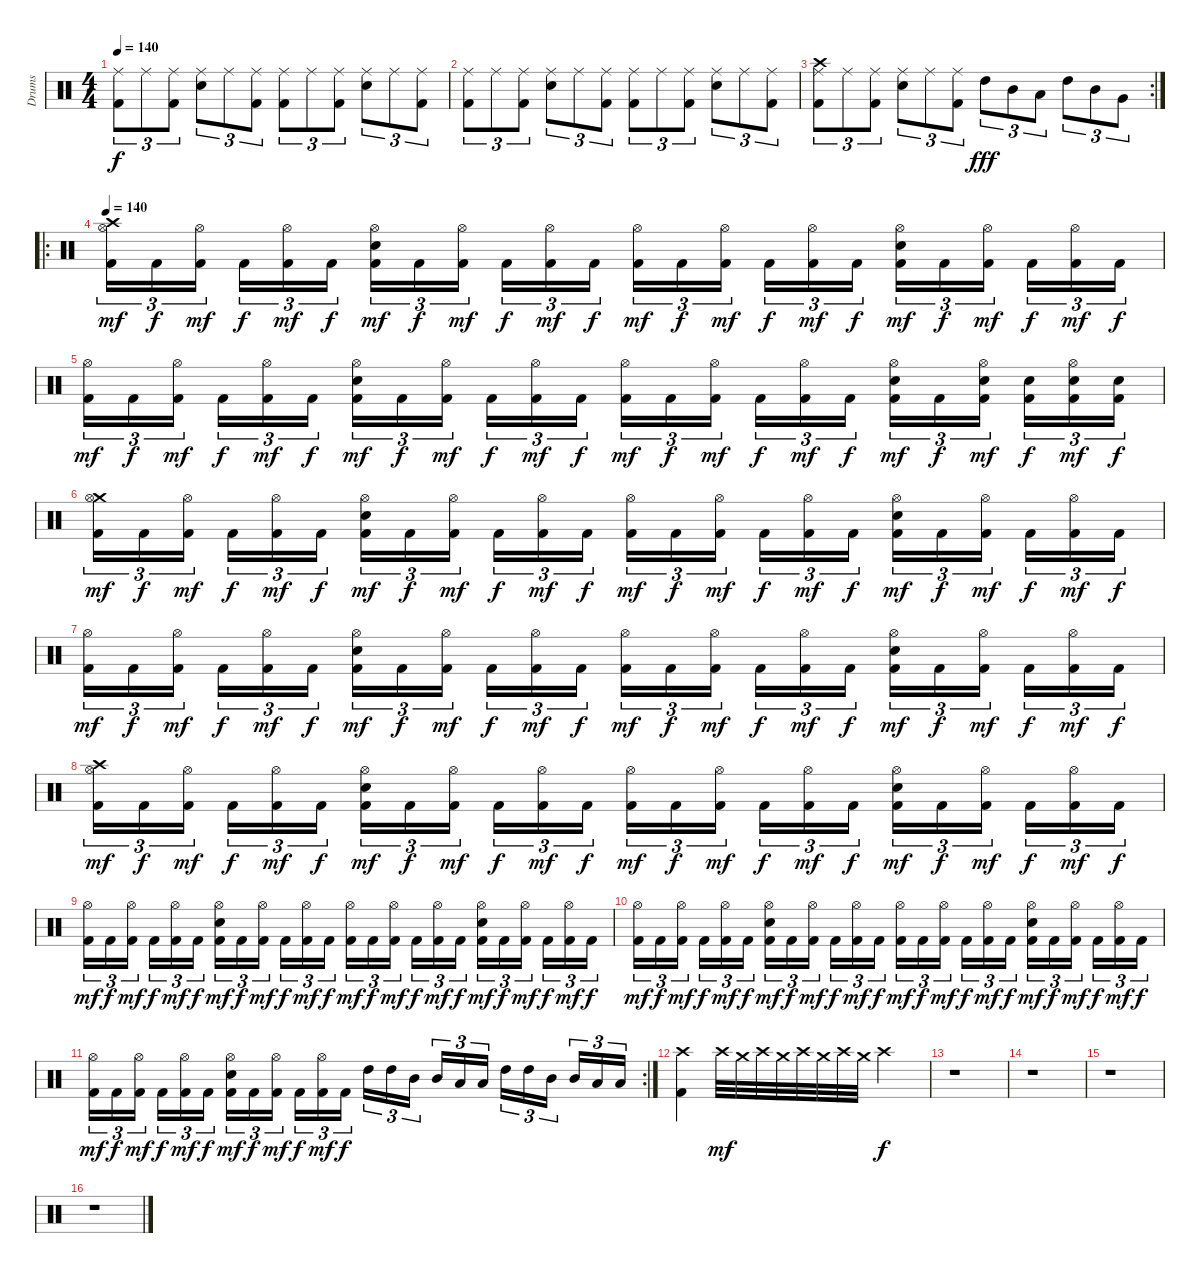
\track ("Drums" "Drums") {instrument percussion}
\staff {score}
\articulation defaults
\ts (4 4)
\tempo 140
\clef neutral
\ks c
("Ride (middle)" "Kick (hit) 2").8{tu (3 2) dy f} "Ride (middle)".8{tu (3 2)} ("Ride (middle)" "Kick (hit) 2").8{tu (3 2)} ("Ride (middle)" "Electric Snare (hit)").8{tu (3 2)} "Ride (middle)".8{tu (3 2)} ("Ride (middle)" "Kick (hit) 2").8{tu (3 2)} ("Ride (middle)" "Kick (hit) 2").8{tu (3 2)} "Ride (middle)".8{tu (3 2)} ("Ride (middle)" "Kick (hit) 2").8{tu (3 2)} ("Ride (middle)" "Electric Snare (hit)").8{tu (3 2)} "Ride (middle)".8{tu (3 2)} ("Ride (middle)" "Kick (hit) 2").8{tu (3 2)} |
("Ride (middle)" "Kick (hit) 2").8{tu (3 2)} "Ride (middle)".8{tu (3 2)} ("Ride (middle)" "Kick (hit) 2").8{tu (3 2)} ("Ride (middle)" "Electric Snare (hit)").8{tu (3 2)} "Ride (middle)".8{tu (3 2)} ("Ride (middle)" "Kick (hit) 2").8{tu (3 2)} ("Ride (middle)" "Kick (hit) 2").8{tu (3 2)} "Ride (middle)".8{tu (3 2)} ("Ride (middle)" "Kick (hit) 2").8{tu (3 2)} ("Ride (middle)" "Electric Snare (hit)").8{tu (3 2)} "Ride (middle)".8{tu (3 2)} ("Ride (middle)" "Kick (hit) 2").8{tu (3 2)} |
\rc 2
("Crash high (hit)" "Ride (middle)" "Kick (hit) 2").8{tu (3 2)} "Ride (middle)".8{tu (3 2)} ("Ride (middle)" "Kick (hit) 2").8{tu (3 2)} ("Ride (middle)" "Electric Snare (hit)").8{tu (3 2)} "Ride (middle)".8{tu (3 2)} ("Ride (middle)" "Kick (hit) 2").8{tu (3 2)} "High Tom (hit)".8{tu (3 2) dy fff} "Mid Tom (hit)".8{tu (3 2)} "Low Tom (hit)".8{tu (3 2)} "High Tom (hit)".8{tu (3 2)} "Mid Tom (hit)".8{tu (3 2)} "Very Low Tom (hit)".8{tu (3 2)} |
\ro
\tempo 140
("Crash high (hit)" "Hi-Hat (open)" "Kick (hit) 2").16{tu (3 2) dy mf} "Kick (hit) 2".16{tu (3 2) dy f} ("Hi-Hat (open)" "Kick (hit) 2").16{tu (3 2) dy mf} "Kick (hit) 2".16{tu (3 2) dy f} ("Hi-Hat (open)" "Kick (hit) 2").16{tu (3 2) dy mf} "Kick (hit) 2".16{tu (3 2) dy f} ("Hi-Hat (open)" "Electric Snare (hit)" "Kick (hit) 2").16{tu (3 2) dy mf} "Kick (hit) 2".16{tu (3 2) dy f} ("Hi-Hat (open)" "Kick (hit) 2").16{tu (3 2) dy mf} "Kick (hit) 2".16{tu (3 2) dy f} ("Hi-Hat (open)" "Kick (hit) 2").16{tu (3 2) dy mf} "Kick (hit) 2".16{tu (3 2) dy f} ("Hi-Hat (open)" "Kick (hit) 2").16{tu (3 2) dy mf} "Kick (hit) 2".16{tu (3 2) dy f} ("Hi-Hat (open)" "Kick (hit) 2").16{tu (3 2) dy mf} "Kick (hit) 2".16{tu (3 2) dy f} ("Hi-Hat (open)" "Kick (hit) 2").16{tu (3 2) dy mf} "Kick (hit) 2".16{tu (3 2) dy f} ("Hi-Hat (open)" "Electric Snare (hit)" "Kick (hit) 2").16{tu (3 2) dy mf} "Kick (hit) 2".16{tu (3 2) dy f} ("Hi-Hat (open)" "Kick (hit) 2").16{tu (3 2) dy mf} "Kick (hit) 2".16{tu (3 2) dy f} ("Hi-Hat (open)" "Kick (hit) 2").16{tu (3 2) dy mf} "Kick (hit) 2".16{tu (3 2) dy f} |
("Hi-Hat (open)" "Kick (hit) 2").16{tu (3 2) dy mf} "Kick (hit) 2".16{tu (3 2) dy f} ("Hi-Hat (open)" "Kick (hit) 2").16{tu (3 2) dy mf} "Kick (hit) 2".16{tu (3 2) dy f} ("Hi-Hat (open)" "Kick (hit) 2").16{tu (3 2) dy mf} "Kick (hit) 2".16{tu (3 2) dy f} ("Hi-Hat (open)" "Electric Snare (hit)" "Kick (hit) 2").16{tu (3 2) dy mf} "Kick (hit) 2".16{tu (3 2) dy f} ("Hi-Hat (open)" "Kick (hit) 2").16{tu (3 2) dy mf} "Kick (hit) 2".16{tu (3 2) dy f} ("Hi-Hat (open)" "Kick (hit) 2").16{tu (3 2) dy mf} "Kick (hit) 2".16{tu (3 2) dy f} ("Hi-Hat (open)" "Kick (hit) 2").16{tu (3 2) dy mf} "Kick (hit) 2".16{tu (3 2) dy f} ("Hi-Hat (open)" "Kick (hit) 2").16{tu (3 2) dy mf} "Kick (hit) 2".16{tu (3 2) dy f} ("Hi-Hat (open)" "Kick (hit) 2").16{tu (3 2) dy mf} "Kick (hit) 2".16{tu (3 2) dy f} ("Hi-Hat (open)" "Electric Snare (hit)" "Kick (hit) 2").16{tu (3 2) dy mf} "Kick (hit) 2".16{tu (3 2) dy f} ("Hi-Hat (open)" "Electric Snare (hit)" "Kick (hit) 2").16{tu (3 2) dy mf} ("Electric Snare (hit)" "Kick (hit) 2").16{tu (3 2) dy f} ("Hi-Hat (open)" "Electric Snare (hit)" "Kick (hit) 2").16{tu (3 2) dy mf} ("Electric Snare (hit)" "Kick (hit) 2").16{tu (3 2) dy f} |
("Crash medium (hit)" "Hi-Hat (open)" "Kick (hit) 2").16{tu (3 2) dy mf} "Kick (hit) 2".16{tu (3 2) dy f} ("Hi-Hat (open)" "Kick (hit) 2").16{tu (3 2) dy mf} "Kick (hit) 2".16{tu (3 2) dy f} ("Hi-Hat (open)" "Kick (hit) 2").16{tu (3 2) dy mf} "Kick (hit) 2".16{tu (3 2) dy f} ("Hi-Hat (open)" "Electric Snare (hit)" "Kick (hit) 2").16{tu (3 2) dy mf} "Kick (hit) 2".16{tu (3 2) dy f} ("Hi-Hat (open)" "Kick (hit) 2").16{tu (3 2) dy mf} "Kick (hit) 2".16{tu (3 2) dy f} ("Hi-Hat (open)" "Kick (hit) 2").16{tu (3 2) dy mf} "Kick (hit) 2".16{tu (3 2) dy f} ("Hi-Hat (open)" "Kick (hit) 2").16{tu (3 2) dy mf} "Kick (hit) 2".16{tu (3 2) dy f} ("Hi-Hat (open)" "Kick (hit) 2").16{tu (3 2) dy mf} "Kick (hit) 2".16{tu (3 2) dy f} ("Hi-Hat (open)" "Kick (hit) 2").16{tu (3 2) dy mf} "Kick (hit) 2".16{tu (3 2) dy f} ("Hi-Hat (open)" "Electric Snare (hit)" "Kick (hit) 2").16{tu (3 2) dy mf} "Kick (hit) 2".16{tu (3 2) dy f} ("Hi-Hat (open)" "Kick (hit) 2").16{tu (3 2) dy mf} "Kick (hit) 2".16{tu (3 2) dy f} ("Hi-Hat (open)" "Kick (hit) 2").16{tu (3 2) dy mf} "Kick (hit) 2".16{tu (3 2) dy f} |
("Hi-Hat (open)" "Kick (hit) 2").16{tu (3 2) dy mf} "Kick (hit) 2".16{tu (3 2) dy f} ("Hi-Hat (open)" "Kick (hit) 2").16{tu (3 2) dy mf} "Kick (hit) 2".16{tu (3 2) dy f} ("Hi-Hat (open)" "Kick (hit) 2").16{tu (3 2) dy mf} "Kick (hit) 2".16{tu (3 2) dy f} ("Hi-Hat (open)" "Electric Snare (hit)" "Kick (hit) 2").16{tu (3 2) dy mf} "Kick (hit) 2".16{tu (3 2) dy f} ("Hi-Hat (open)" "Kick (hit) 2").16{tu (3 2) dy mf} "Kick (hit) 2".16{tu (3 2) dy f} ("Hi-Hat (open)" "Kick (hit) 2").16{tu (3 2) dy mf} "Kick (hit) 2".16{tu (3 2) dy f} ("Hi-Hat (open)" "Kick (hit) 2").16{tu (3 2) dy mf} "Kick (hit) 2".16{tu (3 2) dy f} ("Hi-Hat (open)" "Kick (hit) 2").16{tu (3 2) dy mf} "Kick (hit) 2".16{tu (3 2) dy f} ("Hi-Hat (open)" "Kick (hit) 2").16{tu (3 2) dy mf} "Kick (hit) 2".16{tu (3 2) dy f} ("Hi-Hat (open)" "Electric Snare (hit)" "Kick (hit) 2").16{tu (3 2) dy mf} "Kick (hit) 2".16{tu (3 2) dy f} ("Hi-Hat (open)" "Kick (hit) 2").16{tu (3 2) dy mf} "Kick (hit) 2".16{tu (3 2) dy f} ("Hi-Hat (open)" "Kick (hit) 2").16{tu (3 2) dy mf} "Kick (hit) 2".16{tu (3 2) dy f} |
("Crash high (hit)" "Hi-Hat (open)" "Kick (hit) 2").16{tu (3 2) dy mf} "Kick (hit) 2".16{tu (3 2) dy f} ("Hi-Hat (open)" "Kick (hit) 2").16{tu (3 2) dy mf} "Kick (hit) 2".16{tu (3 2) dy f} ("Hi-Hat (open)" "Kick (hit) 2").16{tu (3 2) dy mf} "Kick (hit) 2".16{tu (3 2) dy f} ("Hi-Hat (open)" "Electric Snare (hit)" "Kick (hit) 2").16{tu (3 2) dy mf} "Kick (hit) 2".16{tu (3 2) dy f} ("Hi-Hat (open)" "Kick (hit) 2").16{tu (3 2) dy mf} "Kick (hit) 2".16{tu (3 2) dy f} ("Hi-Hat (open)" "Kick (hit) 2").16{tu (3 2) dy mf} "Kick (hit) 2".16{tu (3 2) dy f} ("Hi-Hat (open)" "Kick (hit) 2").16{tu (3 2) dy mf} "Kick (hit) 2".16{tu (3 2) dy f} ("Hi-Hat (open)" "Kick (hit) 2").16{tu (3 2) dy mf} "Kick (hit) 2".16{tu (3 2) dy f} ("Hi-Hat (open)" "Kick (hit) 2").16{tu (3 2) dy mf} "Kick (hit) 2".16{tu (3 2) dy f} ("Hi-Hat (open)" "Electric Snare (hit)" "Kick (hit) 2").16{tu (3 2) dy mf} "Kick (hit) 2".16{tu (3 2) dy f} ("Hi-Hat (open)" "Kick (hit) 2").16{tu (3 2) dy mf} "Kick (hit) 2".16{tu (3 2) dy f} ("Hi-Hat (open)" "Kick (hit) 2").16{tu (3 2) dy mf} "Kick (hit) 2".16{tu (3 2) dy f} |
("Hi-Hat (open)" "Kick (hit) 2").16{tu (3 2) dy mf} "Kick (hit) 2".16{tu (3 2) dy f} ("Hi-Hat (open)" "Kick (hit) 2").16{tu (3 2) dy mf} "Kick (hit) 2".16{tu (3 2) dy f} ("Hi-Hat (open)" "Kick (hit) 2").16{tu (3 2) dy mf} "Kick (hit) 2".16{tu (3 2) dy f} ("Hi-Hat (open)" "Electric Snare (hit)" "Kick (hit) 2").16{tu (3 2) dy mf} "Kick (hit) 2".16{tu (3 2) dy f} ("Hi-Hat (open)" "Kick (hit) 2").16{tu (3 2) dy mf} "Kick (hit) 2".16{tu (3 2) dy f} ("Hi-Hat (open)" "Kick (hit) 2").16{tu (3 2) dy mf} "Kick (hit) 2".16{tu (3 2) dy f} ("Hi-Hat (open)" "Kick (hit) 2").16{tu (3 2) dy mf} "Kick (hit) 2".16{tu (3 2) dy f} ("Hi-Hat (open)" "Kick (hit) 2").16{tu (3 2) dy mf} "Kick (hit) 2".16{tu (3 2) dy f} ("Hi-Hat (open)" "Kick (hit) 2").16{tu (3 2) dy mf} "Kick (hit) 2".16{tu (3 2) dy f} ("Hi-Hat (open)" "Electric Snare (hit)" "Kick (hit) 2").16{tu (3 2) dy mf} "Kick (hit) 2".16{tu (3 2) dy f} ("Hi-Hat (open)" "Kick (hit) 2").16{tu (3 2) dy mf} "Kick (hit) 2".16{tu (3 2) dy f} ("Hi-Hat (open)" "Kick (hit) 2").16{tu (3 2) dy mf} "Kick (hit) 2".16{tu (3 2) dy f} |
("Hi-Hat (open)" "Kick (hit) 2").16{tu (3 2) dy mf} "Kick (hit) 2".16{tu (3 2) dy f} ("Hi-Hat (open)" "Kick (hit) 2").16{tu (3 2) dy mf} "Kick (hit) 2".16{tu (3 2) dy f} ("Hi-Hat (open)" "Kick (hit) 2").16{tu (3 2) dy mf} "Kick (hit) 2".16{tu (3 2) dy f} ("Hi-Hat (open)" "Electric Snare (hit)" "Kick (hit) 2").16{tu (3 2) dy mf} "Kick (hit) 2".16{tu (3 2) dy f} ("Hi-Hat (open)" "Kick (hit) 2").16{tu (3 2) dy mf} "Kick (hit) 2".16{tu (3 2) dy f} ("Hi-Hat (open)" "Kick (hit) 2").16{tu (3 2) dy mf} "Kick (hit) 2".16{tu (3 2) dy f} ("Hi-Hat (open)" "Kick (hit) 2").16{tu (3 2) dy mf} "Kick (hit) 2".16{tu (3 2) dy f} ("Hi-Hat (open)" "Kick (hit) 2").16{tu (3 2) dy mf} "Kick (hit) 2".16{tu (3 2) dy f} ("Hi-Hat (open)" "Kick (hit) 2").16{tu (3 2) dy mf} "Kick (hit) 2".16{tu (3 2) dy f} ("Hi-Hat (open)" "Electric Snare (hit)" "Kick (hit) 2").16{tu (3 2) dy mf} "Kick (hit) 2".16{tu (3 2) dy f} ("Hi-Hat (open)" "Kick (hit) 2").16{tu (3 2) dy mf} "Kick (hit) 2".16{tu (3 2) dy f} ("Hi-Hat (open)" "Kick (hit) 2").16{tu (3 2) dy mf} "Kick (hit) 2".16{tu (3 2) dy f} |
\rc 2
("Hi-Hat (open)" "Kick (hit) 2").16{tu (3 2) dy mf} "Kick (hit) 2".16{tu (3 2) dy f} ("Hi-Hat (open)" "Kick (hit) 2").16{tu (3 2) dy mf} "Kick (hit) 2".16{tu (3 2) dy f} ("Hi-Hat (open)" "Kick (hit) 2").16{tu (3 2) dy mf} "Kick (hit) 2".16{tu (3 2) dy f} ("Hi-Hat (open)" "Electric Snare (hit)" "Kick (hit) 2").16{tu (3 2) dy mf} "Kick (hit) 2".16{tu (3 2) dy f} ("Hi-Hat (open)" "Kick (hit) 2").16{tu (3 2) dy mf} "Kick (hit) 2".16{tu (3 2) dy f} ("Hi-Hat (open)" "Kick (hit) 2").16{tu (3 2) dy mf} "Kick (hit) 2".16{tu (3 2) dy f} "High Tom (hit)".16{tu (3 2)} "High Tom (hit)".16{tu (3 2)} "Mid Tom (hit)".16{tu (3 2)} "Mid Tom (hit)".16{tu (3 2)} "Low Tom (hit)".16{tu (3 2)} "Low Tom (hit)".16{tu (3 2)} "High Tom (hit)".16{tu (3 2)} "High Tom (hit)".16{tu (3 2)} "Mid Tom (hit)".16{tu (3 2)} "Mid Tom (hit)".16{tu (3 2)} "Low Tom (hit)".16{tu (3 2)} "Low Tom (hit)".16{tu (3 2)} |
("Crash high (hit)" "Kick (hit) 2").4 "Crash high (hit)".32{dy mf} "Crash medium (hit)".32 "Crash high (hit)".32 "Crash medium (hit)".32 "Crash high (hit)".32 "Crash medium (hit)".32 "Crash high (hit)".32 "Crash medium (hit)".32 "Crash high (hit)".2{dy f} |
r.1 |
r.1 |
r.1 |
r.1
